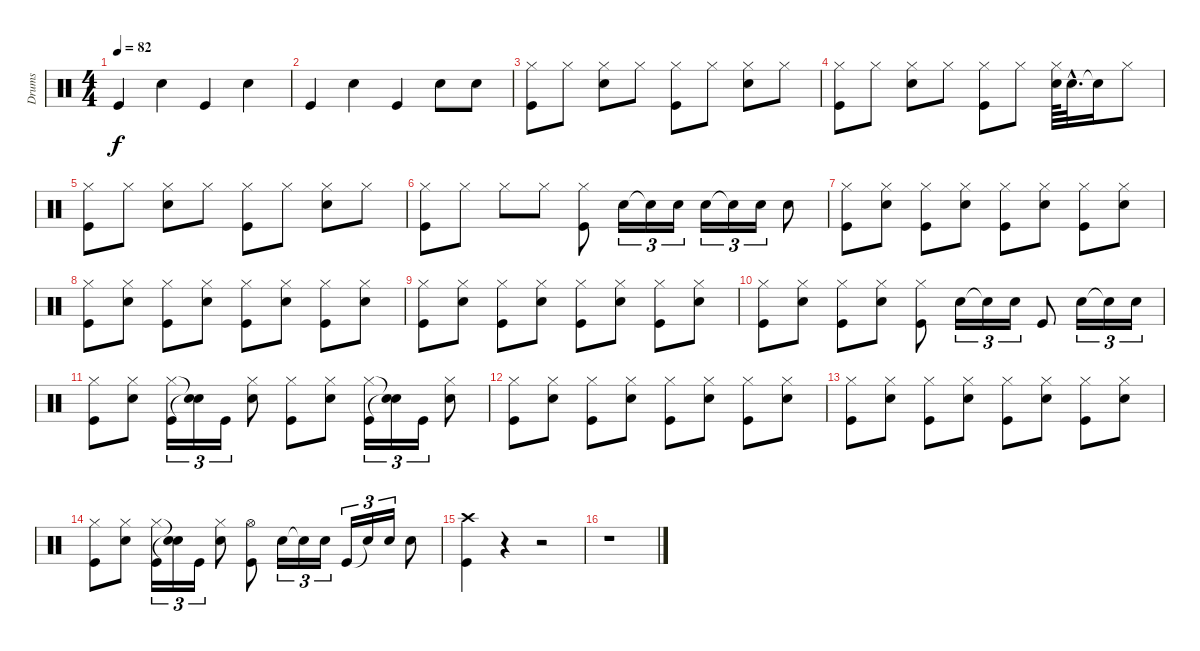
\track ("Drums" "Drums") {instrument percussion}
\staff {score}
\articulation defaults
\ts (4 4)
\tempo 82
\clef neutral
\ks c "Kick (hit)".4{dy f} "Snare (hit) 2".4 "Kick (hit)".4 "Snare (hit) 2".4
|
"Kick (hit)".4 "Snare (hit) 2".4 "Kick (hit)".4 "Snare (hit) 2".8 "Snare (hit) 2".8 |
("Hi-Hat (closed)" "Kick (hit)").8 "Hi-Hat (closed)".8 ("Hi-Hat (closed)" "Snare (hit) 2").8 "Hi-Hat (closed)".8 ("Hi-Hat (closed)" "Kick (hit)").8 "Hi-Hat (closed)".8 ("Hi-Hat (closed)" "Snare (hit) 2").8 "Hi-Hat (closed)".8 |
("Hi-Hat (closed)" "Kick (hit)").8 "Hi-Hat (closed)".8 ("Hi-Hat (closed)" "Snare (hit) 2").8 "Hi-Hat (closed)".8 ("Hi-Hat (closed)" "Kick (hit)").8 "Hi-Hat (closed)".8 ("Hi-Hat (closed)" "Snare (hit) 2").64 "Snare (hit) 2"{hac}.32{d} "Snare (hit)"{t}.16 "Hi-Hat (closed)".8 |
("Hi-Hat (closed)" "Kick (hit)").8 "Hi-Hat (closed)".8 ("Hi-Hat (closed)" "Snare (hit) 2").8 "Hi-Hat (closed)".8 ("Hi-Hat (closed)" "Kick (hit)").8 "Hi-Hat (closed)".8 ("Hi-Hat (closed)" "Snare (hit) 2").8 "Hi-Hat (closed)".8 |
("Hi-Hat (closed)" "Kick (hit)").8 "Hi-Hat (closed)".8 "Hi-Hat (closed)".8 "Hi-Hat (closed)".8 ("Hi-Hat (closed)" "Kick (hit)").8 "Snare (hit) 2".16{tu (3 2)} "Snare (hit)"{t}.16{tu (3 2)} "Snare (hit) 2".16{tu (3 2)} "Snare (hit) 2".16{tu (3 2)} "Snare (hit)"{t}.16{tu (3 2)} "Snare (hit) 2".16{tu (3 2)} "Snare (hit) 2".8 |
("Hi-Hat (closed)" "Kick (hit)").8 ("Hi-Hat (closed)" "Snare (hit) 2").8 ("Hi-Hat (closed)" "Kick (hit)").8 ("Hi-Hat (closed)" "Snare (hit) 2").8 ("Hi-Hat (closed)" "Kick (hit)").8 ("Hi-Hat (closed)" "Snare (hit) 2").8 ("Hi-Hat (closed)" "Kick (hit)").8 ("Hi-Hat (closed)" "Snare (hit) 2").8 |
("Hi-Hat (closed)" "Kick (hit)").8 ("Hi-Hat (closed)" "Snare (hit) 2").8 ("Hi-Hat (closed)" "Kick (hit)").8 ("Hi-Hat (closed)" "Snare (hit) 2").8 ("Hi-Hat (closed)" "Kick (hit)").8 ("Hi-Hat (closed)" "Snare (hit) 2").8 ("Hi-Hat (closed)" "Kick (hit)").8 ("Hi-Hat (closed)" "Snare (hit) 2").8 |
("Hi-Hat (closed)" "Kick (hit)").8 ("Hi-Hat (closed)" "Snare (hit) 2").8 ("Hi-Hat (closed)" "Kick (hit)").8 ("Hi-Hat (closed)" "Snare (hit) 2").8 ("Hi-Hat (closed)" "Kick (hit)").8 ("Hi-Hat (closed)" "Snare (hit) 2").8 ("Hi-Hat (closed)" "Kick (hit)").8 ("Hi-Hat (closed)" "Snare (hit) 2").8 |
("Hi-Hat (closed)" "Kick (hit)").8 ("Hi-Hat (closed)" "Snare (hit) 2").8 ("Hi-Hat (closed)" "Kick (hit)").8 ("Hi-Hat (closed)" "Snare (hit) 2").8 ("Hi-Hat (closed)" "Kick (hit)").8 "Snare (hit) 2".16{tu (3 2)} "Snare (hit)"{t}.16{tu (3 2)} "Snare (hit) 2".16{tu (3 2)} "Kick (hit)".8 "Snare (hit) 2".16{tu (3 2)} "Snare (hit)"{t}.16{tu (3 2)} "Snare (hit) 2".16{tu (3 2)} |
("Hi-Hat (closed)" "Kick (hit)").8 ("Hi-Hat (closed)" "Snare (hit) 2").8 ("Hi-Hat (closed)" "Kick (hit)").16{tu (3 2)} ("Snare (hit)"{t} "Snare (hit)"{t}).16{tu (3 2)} "Kick (hit)".16{tu (3 2)} ("Hi-Hat (closed)" "Snare (hit) 2").8 ("Hi-Hat (closed)" "Kick (hit)").8 ("Hi-Hat (closed)" "Snare (hit) 2").8 ("Hi-Hat (closed)" "Kick (hit)").16{tu (3 2)} ("Snare (hit)"{t} "Snare (hit)"{t}).16{tu (3 2)} "Kick (hit)".16{tu (3 2)} ("Hi-Hat (closed)" "Snare (hit) 2").8 |
("Hi-Hat (closed)" "Kick (hit)").8 ("Hi-Hat (closed)" "Snare (hit) 2").8 ("Hi-Hat (closed)" "Kick (hit)").8 ("Hi-Hat (closed)" "Snare (hit) 2").8 ("Hi-Hat (closed)" "Kick (hit)").8 ("Hi-Hat (closed)" "Snare (hit) 2").8 ("Hi-Hat (closed)" "Kick (hit)").8 ("Hi-Hat (closed)" "Snare (hit) 2").8 |
("Hi-Hat (closed)" "Kick (hit)").8 ("Hi-Hat (closed)" "Snare (hit) 2").8 ("Hi-Hat (closed)" "Kick (hit)").8 ("Hi-Hat (closed)" "Snare (hit) 2").8 ("Hi-Hat (closed)" "Kick (hit)").8 ("Hi-Hat (closed)" "Snare (hit) 2").8 ("Hi-Hat (closed)" "Kick (hit)").8 ("Hi-Hat (closed)" "Snare (hit) 2").8 |
("Hi-Hat (closed)" "Kick (hit)").8 ("Hi-Hat (closed)" "Snare (hit) 2").8 ("Hi-Hat (closed)" "Kick (hit)").16{tu (3 2)} ("Snare (hit)"{t} "Snare (hit)"{t}).16{tu (3 2)} "Kick (hit)".16{tu (3 2)} ("Hi-Hat (closed)" "Snare (hit) 2").8 ("Hi-Hat (open)" "Kick (hit)").8 "Snare (hit) 2".16{tu (3 2)} "Snare (hit)"{t}.16{tu (3 2)} "Snare (hit) 2".16{tu (3 2)} "Kick (hit)".16{tu (3 2)} "Snare (hit)"{t}.16{tu (3 2)} "Snare (hit) 2".16{tu (3 2)} "Snare (hit) 2".8 |
("Crash high (hit)" "Kick (hit)").4 r.4 r.2 |
r.1
